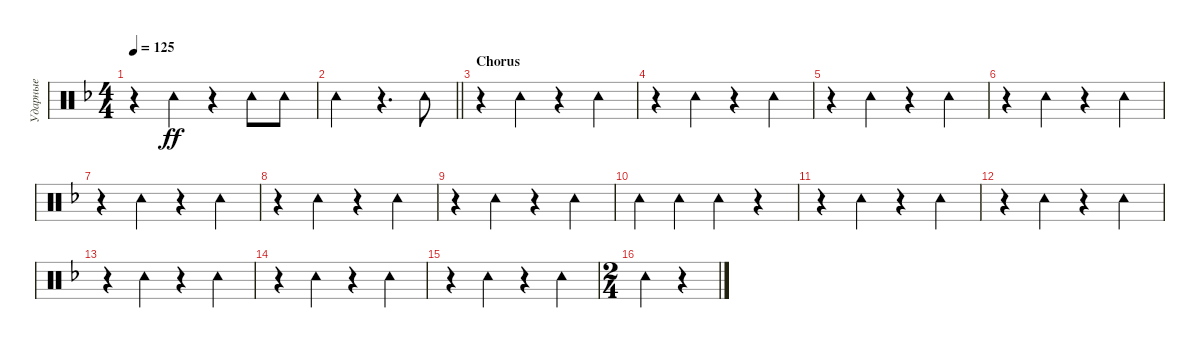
\track ("Ударные" "Ударные") {instrument percussion}
\staff {score}
\articulation defaults
\ts (4 4)
\tempo 125
\clef neutral
\ks dminor
r.4{dy ff} "Tambourine (hit)".4 r.4 "Tambourine (hit)".8 "Tambourine (hit)".8 |
\barLineRight lightlight "Tambourine (hit)".2
r.4{d} "Tambourine (hit)".8 |
\section ("" "Chorus")
r.4 "Tambourine (hit)".4 r.4 "Tambourine (hit)".4 |
r.4 "Tambourine (hit)".4 r.4 "Tambourine (hit)".4 |
r.4 "Tambourine (hit)".4 r.4 "Tambourine (hit)".4 |
r.4 "Tambourine (hit)".4 r.4 "Tambourine (hit)".4 |
r.4 "Tambourine (hit)".4 r.4 "Tambourine (hit)".4 |
r.4 "Tambourine (hit)".4 r.4 "Tambourine (hit)".4 |
r.4 "Tambourine (hit)".4 r.4 "Tambourine (hit)".4 |
"Tambourine (hit)".4 "Tambourine (hit)".4 "Tambourine (hit)".4 r.4 |
r.4 "Tambourine (hit)".4 r.4 "Tambourine (hit)".4 |
r.4 "Tambourine (hit)".4 r.4 "Tambourine (hit)".4 |
r.4 "Tambourine (hit)".4 r.4 "Tambourine (hit)".4 |
r.4 "Tambourine (hit)".4 r.4 "Tambourine (hit)".4 |
r.4 "Tambourine (hit)".4 r.4 "Tambourine (hit)".4 |
\ts (2 4)
"Tambourine (hit)".4 r.4
